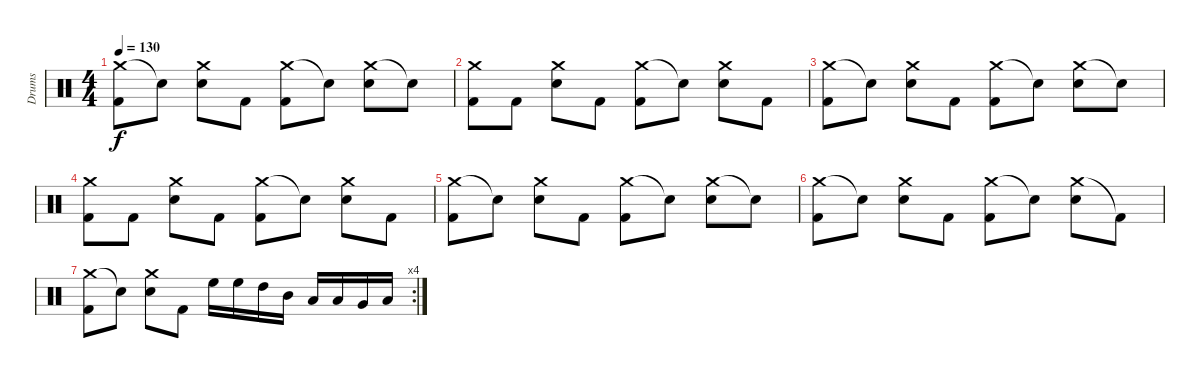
\track ("Drums" "Drums") {instrument percussion}
\staff {score}
\articulation defaults
\ts (4 4)
\tempo 130
\clef neutral
\ks c
("Crash medium (hit)" "Kick (hit) 2").8{dy f} "Snare (hit)"{t}.8 ("Crash medium (hit)" "Electric Snare (hit)").8 "Kick (hit) 2".8 ("Crash medium (hit)" "Kick (hit) 2").8 "Snare (hit)"{t}.8 ("Crash medium (hit)" "Electric Snare (hit)").8 "Snare (hit)"{t}.8 |
("Crash medium (hit)" "Kick (hit) 2").8 "Kick (hit) 2".8 ("Crash medium (hit)" "Electric Snare (hit)").8 "Kick (hit) 2".8 ("Crash medium (hit)" "Kick (hit) 2").8 "Snare (hit)"{t}.8 ("Crash medium (hit)" "Electric Snare (hit)").8 "Kick (hit) 2".8 |
("Crash medium (hit)" "Kick (hit) 2").8 "Snare (hit)"{t}.8 ("Crash medium (hit)" "Electric Snare (hit)").8 "Kick (hit) 2".8 ("Crash medium (hit)" "Kick (hit) 2").8 "Snare (hit)"{t}.8 ("Crash medium (hit)" "Electric Snare (hit)").8 "Snare (hit)"{t}.8 |
("Crash medium (hit)" "Kick (hit) 2").8 "Kick (hit) 2".8 ("Crash medium (hit)" "Electric Snare (hit)").8 "Kick (hit) 2".8 ("Crash medium (hit)" "Kick (hit) 2").8 "Snare (hit)"{t}.8 ("Crash medium (hit)" "Electric Snare (hit)").8 "Kick (hit) 2".8 |
("Crash medium (hit)" "Kick (hit) 2").8 "Snare (hit)"{t}.8 ("Crash medium (hit)" "Electric Snare (hit)").8 "Kick (hit) 2".8 ("Crash medium (hit)" "Kick (hit) 2").8 "Snare (hit)"{t}.8 ("Crash medium (hit)" "Electric Snare (hit)").8 "Snare (hit)"{t}.8 |
("Crash medium (hit)" "Kick (hit) 2").8 "Snare (hit)"{t}.8 ("Crash medium (hit)" "Electric Snare (hit)").8 "Kick (hit) 2".8 ("Crash medium (hit)" "Kick (hit) 2").8 "Snare (hit)"{t}.8 ("Crash medium (hit)" "Electric Snare (hit)").8 "Kick (hit) 2"{t}.8 |
\rc 4
("Crash medium (hit)" "Kick (hit) 2").8 "Electric Snare (hit)"{t}.8 ("Crash medium (hit)" "Electric Snare (hit)").8 "Kick (hit) 2".8 "High Floor Tom (hit)".16 "High Floor Tom (hit)".16 "High Tom (hit)".16 "Mid Tom (hit)".16 "Low Tom (hit)".16 "Low Tom (hit)".16 "Very Low Tom (hit)".16 "Low Floor Tom (hit)".16
